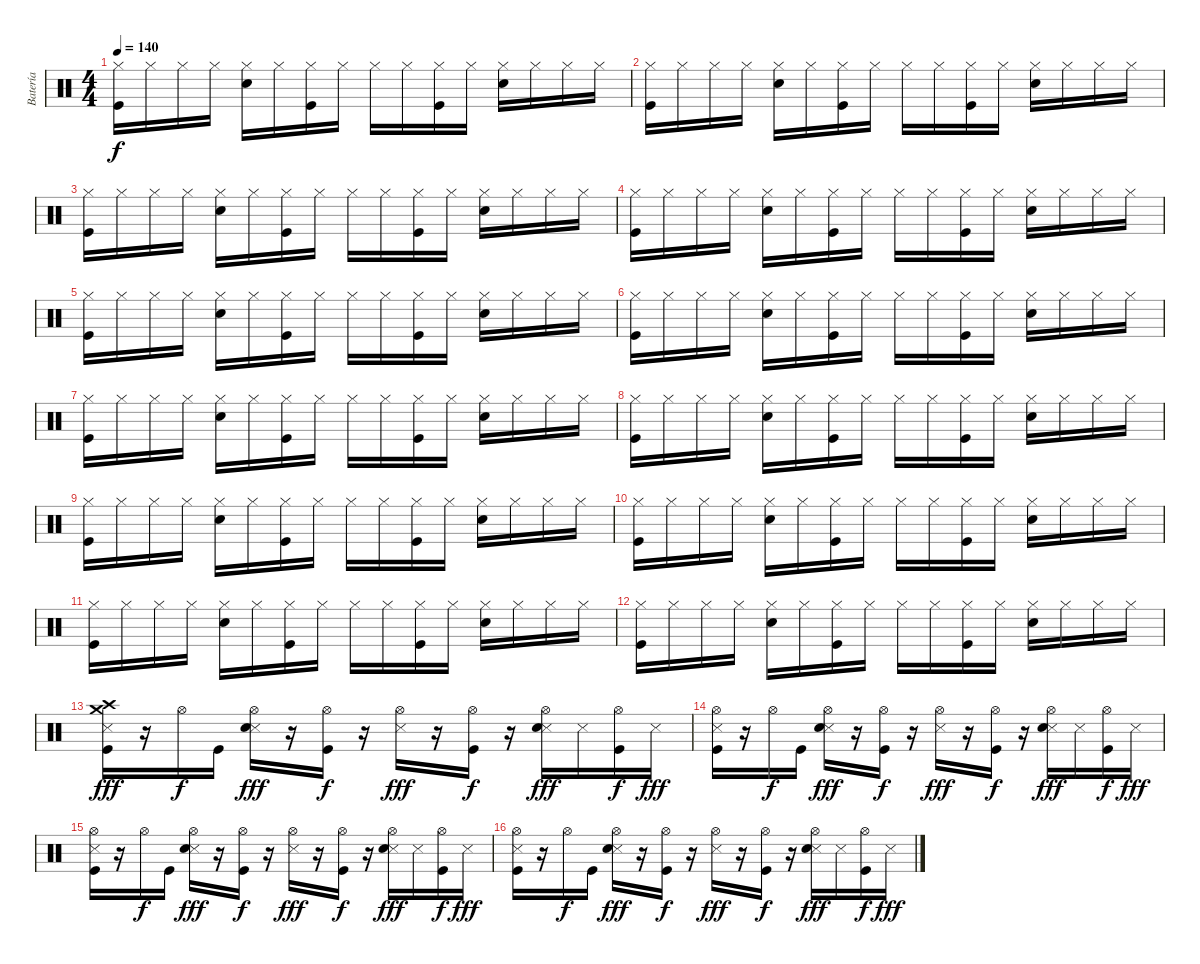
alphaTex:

\track ("Batería" "Batería") {instrument percussion}
\staff {score}
\articulation defaults
\ts (4 4)
\tempo 140
\clef neutral
\ks c
("Hi-Hat (closed)" "Kick (hit)").16{dy f} "Hi-Hat (closed)".16 "Hi-Hat (closed)".16 "Hi-Hat (closed)".16 ("Hi-Hat (closed)" "Snare (hit) 2").16 "Hi-Hat (closed)".16 ("Hi-Hat (closed)" "Kick (hit)").16 "Hi-Hat (closed)".16 "Hi-Hat (closed)".16 "Hi-Hat (closed)".16 ("Hi-Hat (closed)" "Kick (hit)").16 "Hi-Hat (closed)".16 ("Hi-Hat (closed)" "Snare (hit) 2").16 "Hi-Hat (closed)".16 "Hi-Hat (closed)".16 "Hi-Hat (closed)".16 |
("Hi-Hat (closed)" "Kick (hit)").16 "Hi-Hat (closed)".16 "Hi-Hat (closed)".16 "Hi-Hat (closed)".16 ("Hi-Hat (closed)" "Snare (hit) 2").16 "Hi-Hat (closed)".16 ("Hi-Hat (closed)" "Kick (hit)").16 "Hi-Hat (closed)".16 "Hi-Hat (closed)".16 "Hi-Hat (closed)".16 ("Hi-Hat (closed)" "Kick (hit)").16 "Hi-Hat (closed)".16 ("Hi-Hat (closed)" "Snare (hit) 2").16 "Hi-Hat (closed)".16 "Hi-Hat (closed)".16 "Hi-Hat (closed)".16 |
("Hi-Hat (closed)" "Kick (hit)").16 "Hi-Hat (closed)".16 "Hi-Hat (closed)".16 "Hi-Hat (closed)".16 ("Hi-Hat (closed)" "Snare (hit) 2").16 "Hi-Hat (closed)".16 ("Hi-Hat (closed)" "Kick (hit)").16 "Hi-Hat (closed)".16 "Hi-Hat (closed)".16 "Hi-Hat (closed)".16 ("Hi-Hat (closed)" "Kick (hit)").16 "Hi-Hat (closed)".16 ("Hi-Hat (closed)" "Snare (hit) 2").16 "Hi-Hat (closed)".16 "Hi-Hat (closed)".16 "Hi-Hat (closed)".16 |
("Hi-Hat (closed)" "Kick (hit)").16 "Hi-Hat (closed)".16 "Hi-Hat (closed)".16 "Hi-Hat (closed)".16 ("Hi-Hat (closed)" "Snare (hit) 2").16 "Hi-Hat (closed)".16 ("Hi-Hat (closed)" "Kick (hit)").16 "Hi-Hat (closed)".16 "Hi-Hat (closed)".16 "Hi-Hat (closed)".16 ("Hi-Hat (closed)" "Kick (hit)").16 "Hi-Hat (closed)".16 ("Hi-Hat (closed)" "Snare (hit) 2").16 "Hi-Hat (closed)".16 "Hi-Hat (closed)".16 "Hi-Hat (closed)".16 |
("Hi-Hat (closed)" "Kick (hit)").16 "Hi-Hat (closed)".16 "Hi-Hat (closed)".16 "Hi-Hat (closed)".16 ("Hi-Hat (closed)" "Snare (hit) 2").16 "Hi-Hat (closed)".16 ("Hi-Hat (closed)" "Kick (hit)").16 "Hi-Hat (closed)".16 "Hi-Hat (closed)".16 "Hi-Hat (closed)".16 ("Hi-Hat (closed)" "Kick (hit)").16 "Hi-Hat (closed)".16 ("Hi-Hat (closed)" "Snare (hit) 2").16 "Hi-Hat (closed)".16 "Hi-Hat (closed)".16 "Hi-Hat (closed)".16 |
("Hi-Hat (closed)" "Kick (hit)").16 "Hi-Hat (closed)".16 "Hi-Hat (closed)".16 "Hi-Hat (closed)".16 ("Hi-Hat (closed)" "Snare (hit) 2").16 "Hi-Hat (closed)".16 ("Hi-Hat (closed)" "Kick (hit)").16 "Hi-Hat (closed)".16 "Hi-Hat (closed)".16 "Hi-Hat (closed)".16 ("Hi-Hat (closed)" "Kick (hit)").16 "Hi-Hat (closed)".16 ("Hi-Hat (closed)" "Snare (hit) 2").16 "Hi-Hat (closed)".16 "Hi-Hat (closed)".16 "Hi-Hat (closed)".16 |
("Hi-Hat (closed)" "Kick (hit)").16 "Hi-Hat (closed)".16 "Hi-Hat (closed)".16 "Hi-Hat (closed)".16 ("Hi-Hat (closed)" "Snare (hit) 2").16 "Hi-Hat (closed)".16 ("Hi-Hat (closed)" "Kick (hit)").16 "Hi-Hat (closed)".16 "Hi-Hat (closed)".16 "Hi-Hat (closed)".16 ("Hi-Hat (closed)" "Kick (hit)").16 "Hi-Hat (closed)".16 ("Hi-Hat (closed)" "Snare (hit) 2").16 "Hi-Hat (closed)".16 "Hi-Hat (closed)".16 "Hi-Hat (closed)".16 |
("Hi-Hat (closed)" "Kick (hit)").16 "Hi-Hat (closed)".16 "Hi-Hat (closed)".16 "Hi-Hat (closed)".16 ("Hi-Hat (closed)" "Snare (hit) 2").16 "Hi-Hat (closed)".16 ("Hi-Hat (closed)" "Kick (hit)").16 "Hi-Hat (closed)".16 "Hi-Hat (closed)".16 "Hi-Hat (closed)".16 ("Hi-Hat (closed)" "Kick (hit)").16 "Hi-Hat (closed)".16 ("Hi-Hat (closed)" "Snare (hit) 2").16 "Hi-Hat (closed)".16 "Hi-Hat (closed)".16 "Hi-Hat (closed)".16 |
("Hi-Hat (closed)" "Kick (hit)").16 "Hi-Hat (closed)".16 "Hi-Hat (closed)".16 "Hi-Hat (closed)".16 ("Hi-Hat (closed)" "Snare (hit) 2").16 "Hi-Hat (closed)".16 ("Hi-Hat (closed)" "Kick (hit)").16 "Hi-Hat (closed)".16 "Hi-Hat (closed)".16 "Hi-Hat (closed)".16 ("Hi-Hat (closed)" "Kick (hit)").16 "Hi-Hat (closed)".16 ("Hi-Hat (closed)" "Snare (hit) 2").16 "Hi-Hat (closed)".16 "Hi-Hat (closed)".16 "Hi-Hat (closed)".16 |
("Hi-Hat (closed)" "Kick (hit)").16 "Hi-Hat (closed)".16 "Hi-Hat (closed)".16 "Hi-Hat (closed)".16 ("Hi-Hat (closed)" "Snare (hit) 2").16 "Hi-Hat (closed)".16 ("Hi-Hat (closed)" "Kick (hit)").16 "Hi-Hat (closed)".16 "Hi-Hat (closed)".16 "Hi-Hat (closed)".16 ("Hi-Hat (closed)" "Kick (hit)").16 "Hi-Hat (closed)".16 ("Hi-Hat (closed)" "Snare (hit) 2").16 "Hi-Hat (closed)".16 "Hi-Hat (closed)".16 "Hi-Hat (closed)".16 |
("Hi-Hat (closed)" "Kick (hit)").16 "Hi-Hat (closed)".16 "Hi-Hat (closed)".16 "Hi-Hat (closed)".16 ("Hi-Hat (closed)" "Snare (hit) 2").16 "Hi-Hat (closed)".16 ("Hi-Hat (closed)" "Kick (hit)").16 "Hi-Hat (closed)".16 "Hi-Hat (closed)".16 "Hi-Hat (closed)".16 ("Hi-Hat (closed)" "Kick (hit)").16 "Hi-Hat (closed)".16 ("Hi-Hat (closed)" "Snare (hit) 2").16 "Hi-Hat (closed)".16 "Hi-Hat (closed)".16 "Hi-Hat (closed)".16 |
("Hi-Hat (closed)" "Kick (hit)").16 "Hi-Hat (closed)".16 "Hi-Hat (closed)".16 "Hi-Hat (closed)".16 ("Hi-Hat (closed)" "Snare (hit) 2").16 "Hi-Hat (closed)".16 ("Hi-Hat (closed)" "Kick (hit)").16 "Hi-Hat (closed)".16 "Hi-Hat (closed)".16 "Hi-Hat (closed)".16 ("Hi-Hat (closed)" "Kick (hit)").16 "Hi-Hat (closed)".16 ("Hi-Hat (closed)" "Snare (hit) 2").16 "Hi-Hat (closed)".16 "Hi-Hat (closed)".16 "Hi-Hat (closed)".16 |
("Metronome (hit)" "Crash medium (hit)" "Crash high (hit)" "Kick (hit)").16{dy fff} r.16 "Hi-Hat (open)".16{dy f} "Kick (hit)".16 ("Metronome (hit)" "Hi-Hat (open)" "Snare (hit) 2").16{dy fff} r.16 ("Hi-Hat (open)" "Kick (hit)").16{dy f} r.16 ("Metronome (hit)" "Hi-Hat (open)").16{dy fff} r.16 ("Hi-Hat (open)" "Kick (hit)").16{dy f} r.16 ("Metronome (hit)" "Hi-Hat (open)" "Snare (hit) 2").16{dy fff} "Metronome (hit)".16 ("Hi-Hat (open)" "Kick (hit)").16{dy f} "Metronome (hit)".16{dy fff} |
("Metronome (hit)" "Hi-Hat (open)" "Kick (hit)").16 r.16 "Hi-Hat (open)".16{dy f} "Kick (hit)".16 ("Metronome (hit)" "Hi-Hat (open)" "Snare (hit) 2").16{dy fff} r.16 ("Hi-Hat (open)" "Kick (hit)").16{dy f} r.16 ("Metronome (hit)" "Hi-Hat (open)").16{dy fff} r.16 ("Hi-Hat (open)" "Kick (hit)").16{dy f} r.16 ("Metronome (hit)" "Hi-Hat (open)" "Snare (hit) 2").16{dy fff} "Metronome (hit)".16 ("Hi-Hat (open)" "Kick (hit)").16{dy f} "Metronome (hit)".16{dy fff} |
("Metronome (hit)" "Hi-Hat (open)" "Kick (hit)").16 r.16 "Hi-Hat (open)".16{dy f} "Kick (hit)".16 ("Metronome (hit)" "Hi-Hat (open)" "Snare (hit) 2").16{dy fff} r.16 ("Hi-Hat (open)" "Kick (hit)").16{dy f} r.16 ("Metronome (hit)" "Hi-Hat (open)").16{dy fff} r.16 ("Hi-Hat (open)" "Kick (hit)").16{dy f} r.16 ("Metronome (hit)" "Hi-Hat (open)" "Snare (hit) 2").16{dy fff} "Metronome (hit)".16 ("Hi-Hat (open)" "Kick (hit)").16{dy f} "Metronome (hit)".16{dy fff} |
("Metronome (hit)" "Hi-Hat (open)" "Kick (hit)").16 r.16 "Hi-Hat (open)".16{dy f} "Kick (hit)".16 ("Metronome (hit)" "Hi-Hat (open)" "Snare (hit) 2").16{dy fff} r.16 ("Hi-Hat (open)" "Kick (hit)").16{dy f} r.16 ("Metronome (hit)" "Hi-Hat (open)").16{dy fff} r.16 ("Hi-Hat (open)" "Kick (hit)").16{dy f} r.16 ("Metronome (hit)" "Hi-Hat (open)" "Snare (hit) 2").16{dy fff} "Metronome (hit)".16 ("Hi-Hat (open)" "Kick (hit)").16{dy f} "Metronome (hit)".16{dy fff}
